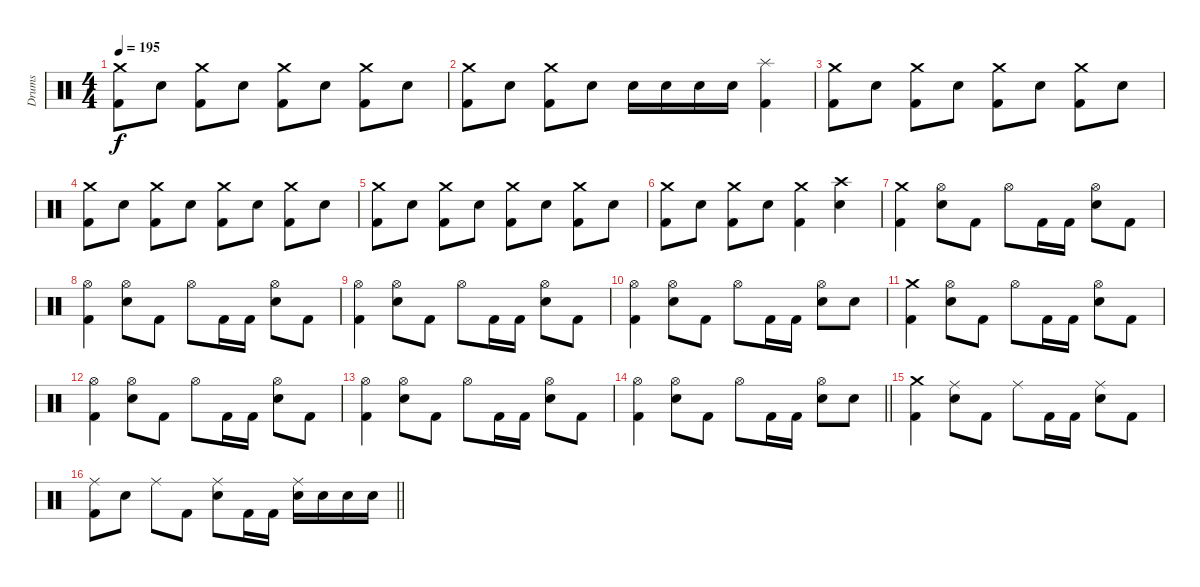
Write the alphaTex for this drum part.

\track ("Drums" "Drums") {instrument percussion}
\staff {score}
\articulation defaults
\ts (4 4)
\tempo 195
\clef neutral
\ks c
("Crash medium (hit)" "Kick (hit) 2").8{dy f} "Electric Snare (hit)".8 ("Crash medium (hit)" "Kick (hit) 2").8 "Electric Snare (hit)".8 ("Crash medium (hit)" "Kick (hit) 2").8 "Electric Snare (hit)".8 ("Crash medium (hit)" "Kick (hit) 2").8 "Electric Snare (hit)".8 |
("Crash medium (hit)" "Kick (hit) 2").8 "Electric Snare (hit)".8 ("Crash medium (hit)" "Kick (hit) 2").8 "Electric Snare (hit)".8 "Electric Snare (hit)".16 "Electric Snare (hit)".16 "Electric Snare (hit)".16 "Electric Snare (hit)".16 ("Splash (hit)" "Kick (hit) 2").4 |
("Crash medium (hit)" "Kick (hit) 2").8 "Electric Snare (hit)".8 ("Crash medium (hit)" "Kick (hit) 2").8 "Electric Snare (hit)".8 ("Crash medium (hit)" "Kick (hit) 2").8 "Electric Snare (hit)".8 ("Crash medium (hit)" "Kick (hit) 2").8 "Electric Snare (hit)".8 |
("Crash medium (hit)" "Kick (hit) 2").8 "Electric Snare (hit)".8 ("Crash medium (hit)" "Kick (hit) 2").8 "Electric Snare (hit)".8 ("Crash medium (hit)" "Kick (hit) 2").8 "Electric Snare (hit)".8 ("Crash medium (hit)" "Kick (hit) 2").8 "Electric Snare (hit)".8 |
("Crash medium (hit)" "Kick (hit) 2").8 "Electric Snare (hit)".8 ("Crash medium (hit)" "Kick (hit) 2").8 "Electric Snare (hit)".8 ("Crash medium (hit)" "Kick (hit) 2").8 "Electric Snare (hit)".8 ("Crash medium (hit)" "Kick (hit) 2").8 "Electric Snare (hit)".8 |
("Crash medium (hit)" "Kick (hit) 2").8 "Electric Snare (hit)".8 ("Crash medium (hit)" "Kick (hit) 2").8 "Electric Snare (hit)".8 ("Crash medium (hit)" "Kick (hit) 2").4 ("Crash high (hit)" "Electric Snare (hit)").4 |
("Crash medium (hit)" "Kick (hit) 2").4 ("Hi-Hat (open)" "Electric Snare (hit)").8 "Kick (hit) 2".8 "Hi-Hat (open)".8 "Kick (hit) 2".16 "Kick (hit) 2".16 ("Hi-Hat (open)" "Electric Snare (hit)").8 "Kick (hit) 2".8 |
("Hi-Hat (open)" "Kick (hit) 2").4 ("Hi-Hat (open)" "Electric Snare (hit)").8 "Kick (hit) 2".8 "Hi-Hat (open)".8 "Kick (hit) 2".16 "Kick (hit) 2".16 ("Hi-Hat (open)" "Electric Snare (hit)").8 "Kick (hit) 2".8 |
("Hi-Hat (open)" "Kick (hit) 2").4 ("Hi-Hat (open)" "Electric Snare (hit)").8 "Kick (hit) 2".8 "Hi-Hat (open)".8 "Kick (hit) 2".16 "Kick (hit) 2".16 ("Hi-Hat (open)" "Electric Snare (hit)").8 "Kick (hit) 2".8 |
("Hi-Hat (open)" "Kick (hit) 2").4 ("Hi-Hat (open)" "Electric Snare (hit)").8 "Kick (hit) 2".8 "Hi-Hat (open)".8 "Kick (hit) 2".16 "Kick (hit) 2".16 ("Hi-Hat (open)" "Electric Snare (hit)").8 "Electric Snare (hit)".8 |
("Crash medium (hit)" "Kick (hit) 2").4 ("Hi-Hat (open)" "Electric Snare (hit)").8 "Kick (hit) 2".8 "Hi-Hat (open)".8 "Kick (hit) 2".16 "Kick (hit) 2".16 ("Hi-Hat (open)" "Electric Snare (hit)").8 "Kick (hit) 2".8 |
("Hi-Hat (open)" "Kick (hit) 2").4 ("Hi-Hat (open)" "Electric Snare (hit)").8 "Kick (hit) 2".8 "Hi-Hat (open)".8 "Kick (hit) 2".16 "Kick (hit) 2".16 ("Hi-Hat (open)" "Electric Snare (hit)").8 "Kick (hit) 2".8 |
("Hi-Hat (open)" "Kick (hit) 2").4 ("Hi-Hat (open)" "Electric Snare (hit)").8 "Kick (hit) 2".8 "Hi-Hat (open)".8 "Kick (hit) 2".16 "Kick (hit) 2".16 ("Hi-Hat (open)" "Electric Snare (hit)").8 "Kick (hit) 2".8 |
\barLineRight lightlight
("Hi-Hat (open)" "Kick (hit) 2").4 ("Hi-Hat (open)" "Electric Snare (hit)").8 "Kick (hit) 2".8 "Hi-Hat (open)".8 "Kick (hit) 2".16 "Kick (hit) 2".16 ("Hi-Hat (open)" "Electric Snare (hit)").8 "Electric Snare (hit)".8 |
("Crash medium (hit)" "Kick (hit) 2").4 ("Ride (middle)" "Electric Snare (hit)").8 "Kick (hit) 2".8 "Ride (middle)".8 "Kick (hit) 2".16 "Kick (hit) 2".16 ("Ride (middle)" "Electric Snare (hit)").8 "Kick (hit) 2".8 |
\barLineRight lightlight
("Ride (middle)" "Kick (hit) 2").8 "Electric Snare (hit)".8 "Ride (middle)".8 "Kick (hit) 2".8 ("Ride (middle)" "Electric Snare (hit)").8 "Kick (hit) 2".16 "Kick (hit) 2".16 ("Ride (middle)" "Electric Snare (hit)").16 "Electric Snare (hit)".16 "Electric Snare (hit)".16 "Electric Snare (hit)".16
